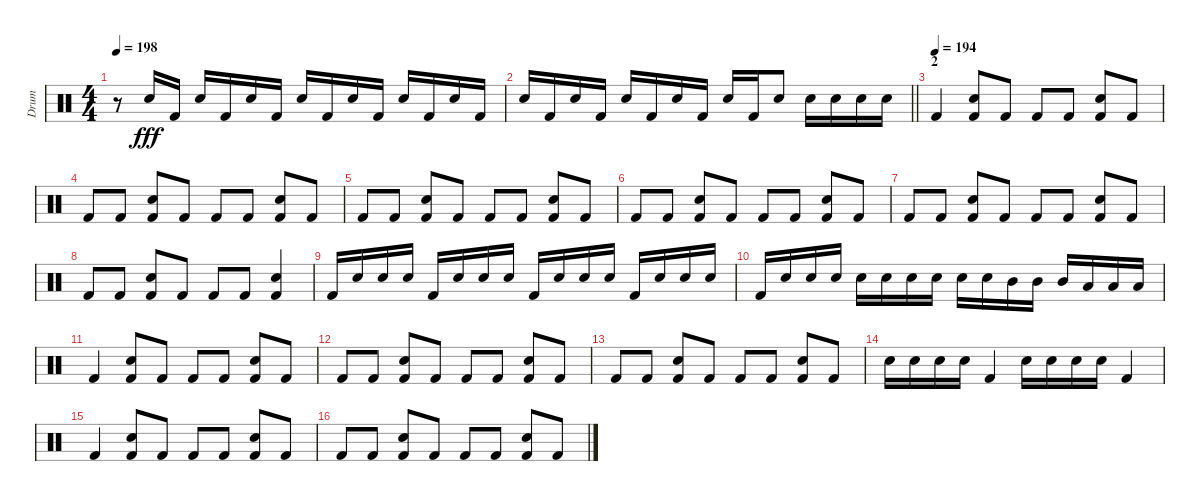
\track ("Drum" "Drum") {instrument percussion}
\staff {score}
\articulation defaults
\ts (4 4)
\tempo 198
\clef neutral
\ks c
r.8{dy fff} "Electric Snare (hit)".16 "Kick (hit) 2".16 "Electric Snare (hit)".16 "Kick (hit) 2".16 "Electric Snare (hit)".16 "Kick (hit) 2".16 "Electric Snare (hit)".16 "Kick (hit) 2".16 "Electric Snare (hit)".16 "Kick (hit) 2".16 "Electric Snare (hit)".16 "Kick (hit) 2".16 "Electric Snare (hit)".16 "Kick (hit) 2".16 |
\barLineRight lightlight "Electric Snare (hit)".16 "Kick (hit) 2".16 "Electric Snare (hit)".16 "Kick (hit) 2".16 "Electric Snare (hit)".16 "Kick (hit) 2".16 "Electric Snare (hit)".16 "Kick (hit) 2".16 "Electric Snare (hit)".16 "Kick (hit) 2".16 "Electric Snare (hit)".8 "Electric Snare (hit)".16 "Electric Snare (hit)".16 "Electric Snare (hit)".16 "Electric Snare (hit)".16
|
\section ("" "2")
\tempo (194)
"Kick (hit) 2".4 ("Electric Snare (hit)" "Kick (hit) 2").8 "Kick (hit) 2".8 "Kick (hit) 2".8 "Kick (hit) 2".8 ("Electric Snare (hit)" "Kick (hit) 2").8 "Kick (hit) 2".8 |
"Kick (hit) 2".8 "Kick (hit) 2".8 ("Electric Snare (hit)" "Kick (hit) 2").8 "Kick (hit) 2".8 "Kick (hit) 2".8 "Kick (hit) 2".8 ("Electric Snare (hit)" "Kick (hit) 2").8 "Kick (hit) 2".8 |
"Kick (hit) 2".8 "Kick (hit) 2".8 ("Electric Snare (hit)" "Kick (hit) 2").8 "Kick (hit) 2".8 "Kick (hit) 2".8 "Kick (hit) 2".8 ("Electric Snare (hit)" "Kick (hit) 2").8 "Kick (hit) 2".8 |
"Kick (hit) 2".8 "Kick (hit) 2".8 ("Electric Snare (hit)" "Kick (hit) 2").8 "Kick (hit) 2".8 "Kick (hit) 2".8 "Kick (hit) 2".8 ("Electric Snare (hit)" "Kick (hit) 2").8 "Kick (hit) 2".8 |
"Kick (hit) 2".8 "Kick (hit) 2".8 ("Electric Snare (hit)" "Kick (hit) 2").8 "Kick (hit) 2".8 "Kick (hit) 2".8 "Kick (hit) 2".8 ("Electric Snare (hit)" "Kick (hit) 2").8 "Kick (hit) 2".8 |
"Kick (hit) 2".8 "Kick (hit) 2".8 ("Electric Snare (hit)" "Kick (hit) 2").8 "Kick (hit) 2".8 "Kick (hit) 2".8 "Kick (hit) 2".8 ("Electric Snare (hit)" "Kick (hit) 2").4 |
"Kick (hit) 2".16 "Electric Snare (hit)".16 "Electric Snare (hit)".16 "Electric Snare (hit)".16 "Kick (hit) 2".16 "Electric Snare (hit)".16 "Electric Snare (hit)".16 "Electric Snare (hit)".16 "Kick (hit) 2".16 "Electric Snare (hit)".16 "Electric Snare (hit)".16 "Electric Snare (hit)".16 "Kick (hit) 2".16 "Electric Snare (hit)".16 "Electric Snare (hit)".16 "Electric Snare (hit)".16 |
"Kick (hit) 2".16 "Electric Snare (hit)".16 "Electric Snare (hit)".16 "Electric Snare (hit)".16 "Electric Snare (hit)".16 "Electric Snare (hit)".16 "Electric Snare (hit)".16 "Electric Snare (hit)".16 "Electric Snare (hit)".16 "Electric Snare (hit)".16 "Mid Tom (hit)".16 "Mid Tom (hit)".16 "Mid Tom (hit)".16 "Low Tom (hit)".16 "Low Tom (hit)".16 "Low Tom (hit)".16 |
"Kick (hit) 2".4 ("Electric Snare (hit)" "Kick (hit) 2").8 "Kick (hit) 2".8 "Kick (hit) 2".8 "Kick (hit) 2".8 ("Electric Snare (hit)" "Kick (hit) 2").8 "Kick (hit) 2".8 |
"Kick (hit) 2".8 "Kick (hit) 2".8 ("Electric Snare (hit)" "Kick (hit) 2").8 "Kick (hit) 2".8 "Kick (hit) 2".8 "Kick (hit) 2".8 ("Electric Snare (hit)" "Kick (hit) 2").8 "Kick (hit) 2".8 |
"Kick (hit) 2".8 "Kick (hit) 2".8 ("Electric Snare (hit)" "Kick (hit) 2").8 "Kick (hit) 2".8 "Kick (hit) 2".8 "Kick (hit) 2".8 ("Electric Snare (hit)" "Kick (hit) 2").8 "Kick (hit) 2".8 |
"Electric Snare (hit)".16 "Electric Snare (hit)".16 "Electric Snare (hit)".16 "Electric Snare (hit)".16 "Kick (hit) 2".4 "Electric Snare (hit)".16 "Electric Snare (hit)".16 "Electric Snare (hit)".16 "Electric Snare (hit)".16 "Kick (hit) 2".4 |
"Kick (hit) 2".4 ("Electric Snare (hit)" "Kick (hit) 2").8 "Kick (hit) 2".8 "Kick (hit) 2".8 "Kick (hit) 2".8 ("Electric Snare (hit)" "Kick (hit) 2").8 "Kick (hit) 2".8 |
"Kick (hit) 2".8 "Kick (hit) 2".8 ("Electric Snare (hit)" "Kick (hit) 2").8 "Kick (hit) 2".8 "Kick (hit) 2".8 "Kick (hit) 2".8 ("Electric Snare (hit)" "Kick (hit) 2").8 "Kick (hit) 2".8
